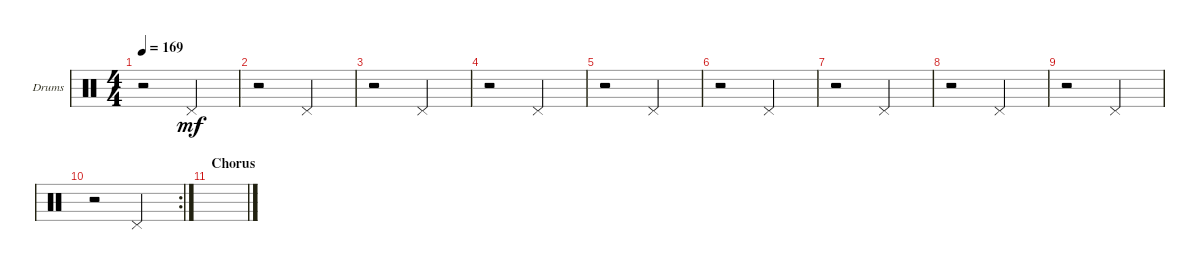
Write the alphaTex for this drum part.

\bracketExtendMode groupsimilarinstruments
\firstSystemTrackNameOrientation horizontal
\otherSystemsTrackNameOrientation horizontal
\track ("Drumkit" "Drums") {instrument percussion}
\staff {score}
\articulation defaults
\ts (4 4)
\tempo 169
\clef neutral
\ks c
r.2{dy mf} "Pedal Hi-Hat (hit)".2 |
r.2 "Pedal Hi-Hat (hit)".2 |
r.2 "Pedal Hi-Hat (hit)".2 |
r.2 "Pedal Hi-Hat (hit)".2 |
r.2 "Pedal Hi-Hat (hit)".2 |
r.2 "Pedal Hi-Hat (hit)".2 |
r.2 "Pedal Hi-Hat (hit)".2 |
r.2 "Pedal Hi-Hat (hit)".2 |
r.2 "Pedal Hi-Hat (hit)".2 |
\rc 2
r.2 "Pedal Hi-Hat (hit)".2 |
\section ("" "Chorus")
